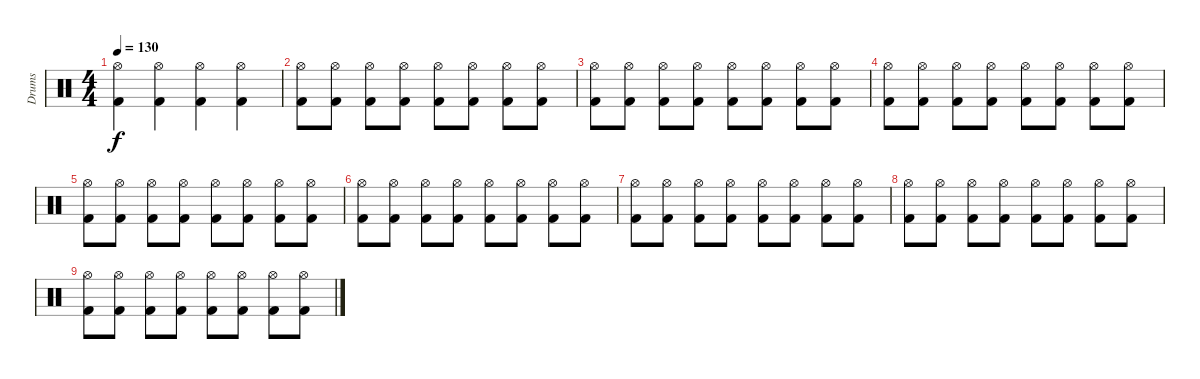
\track ("Drums" "Drums") {instrument percussion}
\staff {score}
\articulation defaults
\ts (4 4)
\tempo 130
\clef neutral
\ks c
("Hi-Hat (open)" "Kick (hit) 2").4{dy f} ("Hi-Hat (open)" "Kick (hit) 2").4 ("Hi-Hat (open)" "Kick (hit) 2").4 ("Hi-Hat (open)" "Kick (hit) 2").4 |
("Hi-Hat (open)" "Kick (hit) 2").8 ("Hi-Hat (open)" "Kick (hit) 2").8 ("Hi-Hat (open)" "Kick (hit) 2").8 ("Hi-Hat (open)" "Kick (hit) 2").8 ("Hi-Hat (open)" "Kick (hit) 2").8 ("Hi-Hat (open)" "Kick (hit) 2").8 ("Hi-Hat (open)" "Kick (hit) 2").8 ("Hi-Hat (open)" "Kick (hit) 2").8 |
("Hi-Hat (open)" "Kick (hit) 2").8 ("Hi-Hat (open)" "Kick (hit) 2").8 ("Hi-Hat (open)" "Kick (hit) 2").8 ("Hi-Hat (open)" "Kick (hit) 2").8 ("Hi-Hat (open)" "Kick (hit) 2").8 ("Hi-Hat (open)" "Kick (hit) 2").8 ("Hi-Hat (open)" "Kick (hit) 2").8 ("Hi-Hat (open)" "Kick (hit) 2").8 |
("Hi-Hat (open)" "Kick (hit) 2").8 ("Hi-Hat (open)" "Kick (hit) 2").8 ("Hi-Hat (open)" "Kick (hit) 2").8 ("Hi-Hat (open)" "Kick (hit) 2").8 ("Hi-Hat (open)" "Kick (hit) 2").8 ("Hi-Hat (open)" "Kick (hit) 2").8 ("Hi-Hat (open)" "Kick (hit) 2").8 ("Hi-Hat (open)" "Kick (hit) 2").8 |
("Hi-Hat (open)" "Kick (hit) 2").8 ("Hi-Hat (open)" "Kick (hit) 2").8 ("Hi-Hat (open)" "Kick (hit) 2").8 ("Hi-Hat (open)" "Kick (hit) 2").8 ("Hi-Hat (open)" "Kick (hit) 2").8 ("Hi-Hat (open)" "Kick (hit) 2").8 ("Hi-Hat (open)" "Kick (hit) 2").8 ("Hi-Hat (open)" "Kick (hit) 2").8 |
("Hi-Hat (open)" "Kick (hit) 2").8 ("Hi-Hat (open)" "Kick (hit) 2").8 ("Hi-Hat (open)" "Kick (hit) 2").8 ("Hi-Hat (open)" "Kick (hit) 2").8 ("Hi-Hat (open)" "Kick (hit) 2").8 ("Hi-Hat (open)" "Kick (hit) 2").8 ("Hi-Hat (open)" "Kick (hit) 2").8 ("Hi-Hat (open)" "Kick (hit) 2").8 |
("Hi-Hat (open)" "Kick (hit) 2").8 ("Hi-Hat (open)" "Kick (hit) 2").8 ("Hi-Hat (open)" "Kick (hit) 2").8 ("Hi-Hat (open)" "Kick (hit) 2").8 ("Hi-Hat (open)" "Kick (hit) 2").8 ("Hi-Hat (open)" "Kick (hit) 2").8 ("Hi-Hat (open)" "Kick (hit) 2").8 ("Hi-Hat (open)" "Kick (hit) 2").8 |
("Hi-Hat (open)" "Kick (hit) 2").8 ("Hi-Hat (open)" "Kick (hit) 2").8 ("Hi-Hat (open)" "Kick (hit) 2").8 ("Hi-Hat (open)" "Kick (hit) 2").8 ("Hi-Hat (open)" "Kick (hit) 2").8 ("Hi-Hat (open)" "Kick (hit) 2").8 ("Hi-Hat (open)" "Kick (hit) 2").8 ("Hi-Hat (open)" "Kick (hit) 2").8 |
("Hi-Hat (open)" "Kick (hit) 2").8 ("Hi-Hat (open)" "Kick (hit) 2").8 ("Hi-Hat (open)" "Kick (hit) 2").8 ("Hi-Hat (open)" "Kick (hit) 2").8 ("Hi-Hat (open)" "Kick (hit) 2").8 ("Hi-Hat (open)" "Kick (hit) 2").8 ("Hi-Hat (open)" "Kick (hit) 2").8 ("Hi-Hat (open)" "Kick (hit) 2").8
